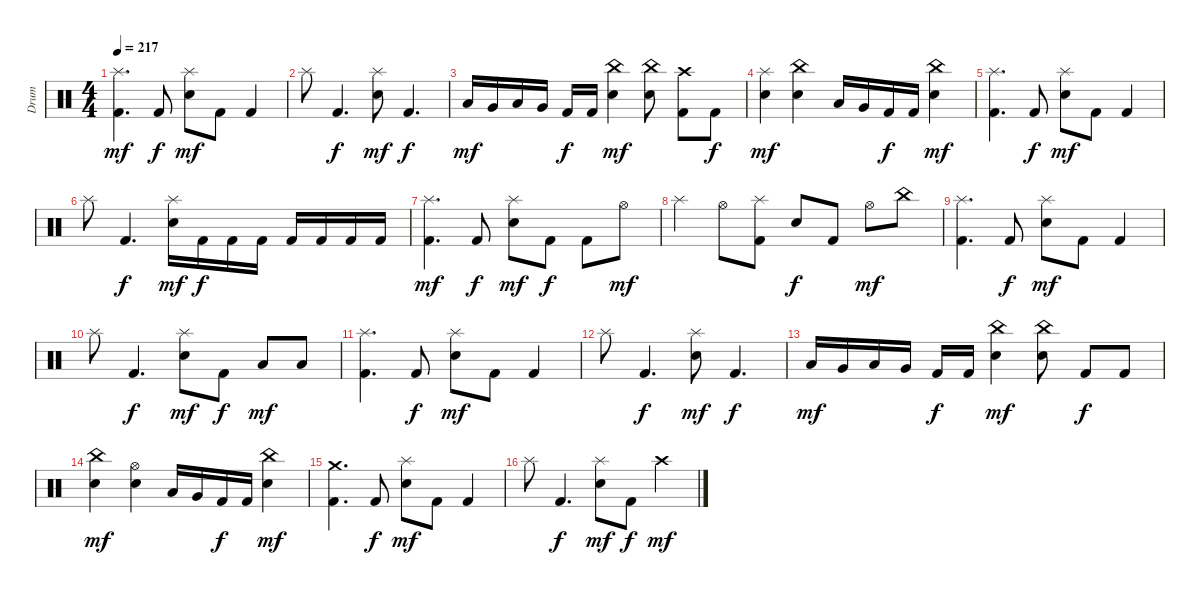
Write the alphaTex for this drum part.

\track ("Drum" "Drum") {instrument percussion}
\staff {score}
\articulation defaults
\ts (4 4)
\tempo 217
\clef neutral
\ks c
("Splash (hit)" "Kick (hit) 2").4{d dy mf} "Kick (hit) 2".8{dy f} ("Splash (hit)" "Electric Snare (hit)").8{dy mf} "Kick (hit) 2".8 "Kick (hit) 2".4 |
"Splash (hit)".8 "Kick (hit) 2".4{d dy f} ("Splash (hit)" "Electric Snare (hit)").8{dy mf} "Kick (hit) 2".4{d dy f} |
"Low Tom (hit)".16{dy mf} "Very Low Tom (hit)".16 "Low Tom (hit)".16 "Very Low Tom (hit)".16 "Kick (hit) 2".16{dy f} "Kick (hit) 2".16 ("China (hit)" "Electric Snare (hit)").4{dy mf} ("China (hit)" "Electric Snare (hit)").8 ("Crash high (hit)" "Kick (hit) 2").8 "Kick (hit) 2".8{dy f} |
("Splash (hit)" "Electric Snare (hit)").4{dy mf} ("China (hit)" "Electric Snare (hit)").4 "Low Tom (hit)".16 "Very Low Tom (hit)".16 "Kick (hit) 2".16{dy f} "Kick (hit) 2".16 ("China (hit)" "Electric Snare (hit)").4{dy mf} |
("Splash (hit)" "Kick (hit) 2").4{d} "Kick (hit) 2".8{dy f} ("Splash (hit)" "Electric Snare (hit)").8{dy mf} "Kick (hit) 2".8 "Kick (hit) 2".4 |
"Splash (hit)".8 "Kick (hit) 2".4{d dy f} ("Splash (hit)" "Electric Snare (hit)").16{dy mf} "Kick (hit) 2".16{dy f} "Kick (hit) 2".16 "Kick (hit) 2".16 "Kick (hit) 2".16 "Kick (hit) 2".16 "Kick (hit) 2".16 "Kick (hit) 2".16 |
("Splash (hit)" "Kick (hit) 2").4{d dy mf} "Kick (hit) 2".8{dy f} ("Splash (hit)" "Electric Snare (hit)").8{dy mf} "Kick (hit) 2".8{dy f} "Kick (hit) 2".8 "Hi-Hat (open)".8{dy mf} |
"Splash (hit)".4 "Hi-Hat (open)".8 ("Splash (hit)" "Kick (hit) 2").8 "Electric Snare (hit)".8{dy f} "Kick (hit) 2".8 "Hi-Hat (open)".8{dy mf} "China (hit)".8 |
("Splash (hit)" "Kick (hit) 2").4{d} "Kick (hit) 2".8{dy f} ("Splash (hit)" "Electric Snare (hit)").8{dy mf} "Kick (hit) 2".8 "Kick (hit) 2".4 |
"Splash (hit)".8 "Kick (hit) 2".4{d dy f} ("Splash (hit)" "Electric Snare (hit)").8{dy mf} "Kick (hit) 2".8{dy f} "Low Tom (hit)".8{dy mf} "Low Tom (hit)".8 |
("Splash (hit)" "Kick (hit) 2").4{d} "Kick (hit) 2".8{dy f} ("Splash (hit)" "Electric Snare (hit)").8{dy mf} "Kick (hit) 2".8 "Kick (hit) 2".4 |
"Splash (hit)".8 "Kick (hit) 2".4{d dy f} ("Splash (hit)" "Electric Snare (hit)").8{dy mf} "Kick (hit) 2".4{d dy f} |
"Low Tom (hit)".16{dy mf} "Very Low Tom (hit)".16 "Low Tom (hit)".16 "Very Low Tom (hit)".16 "Kick (hit) 2".16{dy f} "Kick (hit) 2".16 ("China (hit)" "Electric Snare (hit)").4{dy mf} ("China (hit)" "Electric Snare (hit)").8 "Kick (hit) 2".8{dy f} "Kick (hit) 2".8 |
("China (hit)" "Electric Snare (hit)").4{dy mf} ("Hi-Hat (open)" "Electric Snare (hit)").4 "Low Tom (hit)".16 "Very Low Tom (hit)".16 "Kick (hit) 2".16{dy f} "Kick (hit) 2".16 ("China (hit)" "Electric Snare (hit)").4{dy mf} |
("Crash medium (hit)" "Kick (hit) 2").4{d} "Kick (hit) 2".8{dy f} ("Splash (hit)" "Electric Snare (hit)").8{dy mf} "Kick (hit) 2".8 "Kick (hit) 2".4 |
"Splash (hit)".8 "Kick (hit) 2".4{d dy f} ("Splash (hit)" "Electric Snare (hit)").8{dy mf} "Kick (hit) 2".8{dy f} "Crash high (hit)".4{dy mf}
